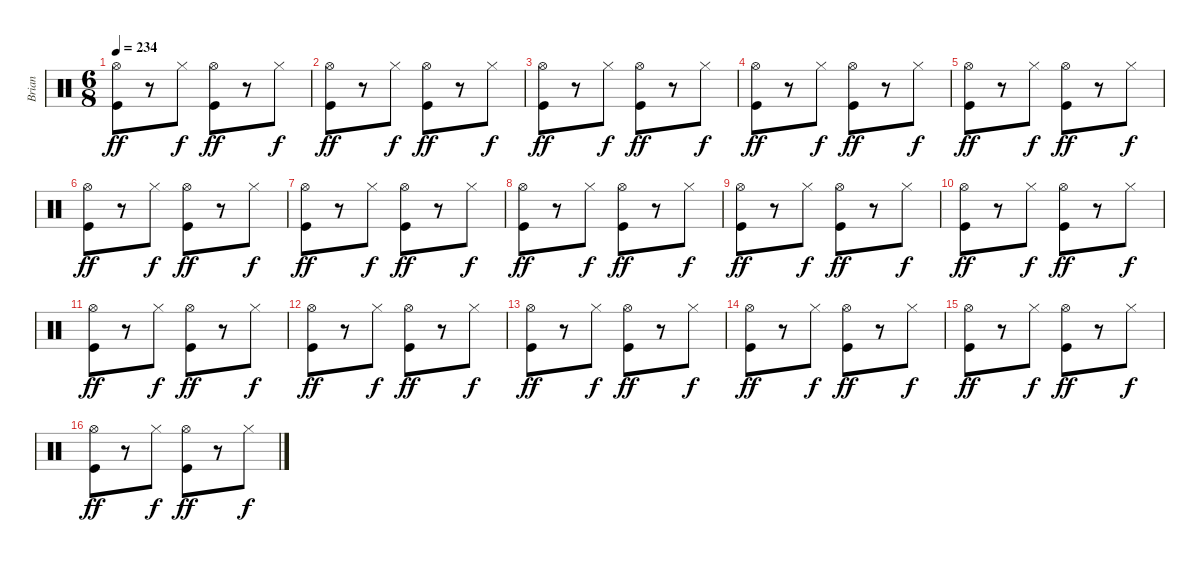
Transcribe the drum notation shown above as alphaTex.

\track ("Brian" "Brian") {instrument percussion}
\staff {score}
\articulation defaults
\ts (6 8)
\tempo 234
\clef neutral
\ks c
("Hi-Hat (open)" "Kick (hit)").8{dy ff} r.8 "Hi-Hat (closed)".8{dy f} ("Hi-Hat (open)" "Kick (hit)").8{dy ff} r.8 "Hi-Hat (closed)".8{dy f} |
("Hi-Hat (open)" "Kick (hit)").8{dy ff} r.8 "Hi-Hat (closed)".8{dy f} ("Hi-Hat (open)" "Kick (hit)").8{dy ff} r.8 "Hi-Hat (closed)".8{dy f} |
("Hi-Hat (open)" "Kick (hit)").8{dy ff} r.8 "Hi-Hat (closed)".8{dy f} ("Hi-Hat (open)" "Kick (hit)").8{dy ff} r.8 "Hi-Hat (closed)".8{dy f} |
("Hi-Hat (open)" "Kick (hit)").8{dy ff} r.8 "Hi-Hat (closed)".8{dy f} ("Hi-Hat (open)" "Kick (hit)").8{dy ff} r.8 "Hi-Hat (closed)".8{dy f} |
("Hi-Hat (open)" "Kick (hit)").8{dy ff} r.8 "Hi-Hat (closed)".8{dy f} ("Hi-Hat (open)" "Kick (hit)").8{dy ff} r.8 "Hi-Hat (closed)".8{dy f} |
("Hi-Hat (open)" "Kick (hit)").8{dy ff} r.8 "Hi-Hat (closed)".8{dy f} ("Hi-Hat (open)" "Kick (hit)").8{dy ff} r.8 "Hi-Hat (closed)".8{dy f} |
("Hi-Hat (open)" "Kick (hit)").8{dy ff} r.8 "Hi-Hat (closed)".8{dy f} ("Hi-Hat (open)" "Kick (hit)").8{dy ff} r.8 "Hi-Hat (closed)".8{dy f} |
("Hi-Hat (open)" "Kick (hit)").8{dy ff} r.8 "Hi-Hat (closed)".8{dy f} ("Hi-Hat (open)" "Kick (hit)").8{dy ff} r.8 "Hi-Hat (closed)".8{dy f} |
("Hi-Hat (open)" "Kick (hit)").8{dy ff} r.8 "Hi-Hat (closed)".8{dy f} ("Hi-Hat (open)" "Kick (hit)").8{dy ff} r.8 "Hi-Hat (closed)".8{dy f} |
("Hi-Hat (open)" "Kick (hit)").8{dy ff} r.8 "Hi-Hat (closed)".8{dy f} ("Hi-Hat (open)" "Kick (hit)").8{dy ff} r.8 "Hi-Hat (closed)".8{dy f} |
("Hi-Hat (open)" "Kick (hit)").8{dy ff} r.8 "Hi-Hat (closed)".8{dy f} ("Hi-Hat (open)" "Kick (hit)").8{dy ff} r.8 "Hi-Hat (closed)".8{dy f} |
("Hi-Hat (open)" "Kick (hit)").8{dy ff} r.8 "Hi-Hat (closed)".8{dy f} ("Hi-Hat (open)" "Kick (hit)").8{dy ff} r.8 "Hi-Hat (closed)".8{dy f} |
("Hi-Hat (open)" "Kick (hit)").8{dy ff} r.8 "Hi-Hat (closed)".8{dy f} ("Hi-Hat (open)" "Kick (hit)").8{dy ff} r.8 "Hi-Hat (closed)".8{dy f} |
("Hi-Hat (open)" "Kick (hit)").8{dy ff} r.8 "Hi-Hat (closed)".8{dy f} ("Hi-Hat (open)" "Kick (hit)").8{dy ff} r.8 "Hi-Hat (closed)".8{dy f} |
("Hi-Hat (open)" "Kick (hit)").8{dy ff} r.8 "Hi-Hat (closed)".8{dy f} ("Hi-Hat (open)" "Kick (hit)").8{dy ff} r.8 "Hi-Hat (closed)".8{dy f} |
("Hi-Hat (open)" "Kick (hit)").8{dy ff} r.8 "Hi-Hat (closed)".8{dy f} ("Hi-Hat (open)" "Kick (hit)").8{dy ff} r.8 "Hi-Hat (closed)".8{dy f}
